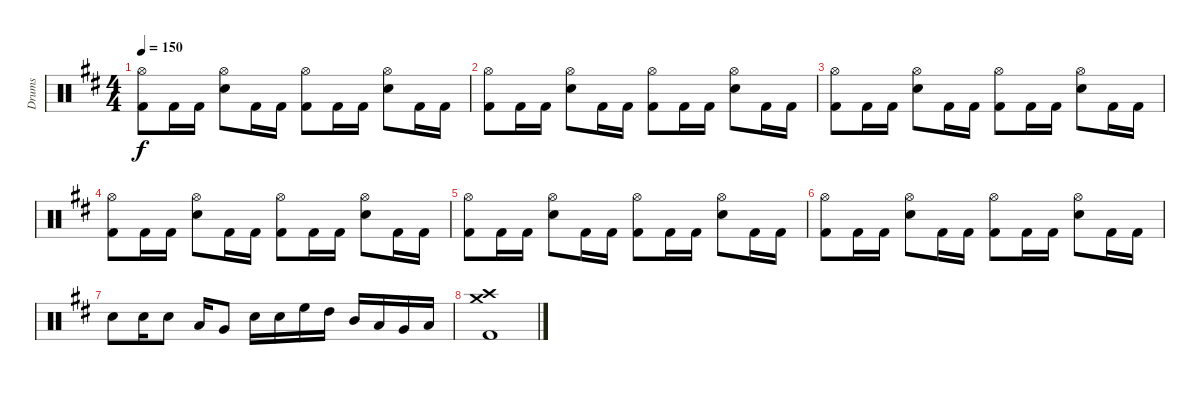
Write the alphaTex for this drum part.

\track ("Drums" "Drums") {instrument percussion}
\staff {score}
\articulation defaults
\ts (4 4)
\tempo 150
\clef neutral
\ks d
("Hi-Hat (open)" "Kick (hit) 2").8{dy f} "Kick (hit) 2".16 "Kick (hit) 2".16 ("Hi-Hat (open)" "Snare (hit) 2").8 "Kick (hit) 2".16 "Kick (hit) 2".16 ("Hi-Hat (open)" "Kick (hit) 2").8 "Kick (hit) 2".16 "Kick (hit) 2".16 ("Hi-Hat (open)" "Snare (hit) 2").8 "Kick (hit) 2".16 "Kick (hit) 2".16 |
("Hi-Hat (open)" "Kick (hit) 2").8 "Kick (hit) 2".16 "Kick (hit) 2".16 ("Hi-Hat (open)" "Snare (hit) 2").8 "Kick (hit) 2".16 "Kick (hit) 2".16 ("Hi-Hat (open)" "Kick (hit) 2").8 "Kick (hit) 2".16 "Kick (hit) 2".16 ("Hi-Hat (open)" "Snare (hit) 2").8 "Kick (hit) 2".16 "Kick (hit) 2".16 |
("Hi-Hat (open)" "Kick (hit) 2").8 "Kick (hit) 2".16 "Kick (hit) 2".16 ("Hi-Hat (open)" "Snare (hit) 2").8 "Kick (hit) 2".16 "Kick (hit) 2".16 ("Hi-Hat (open)" "Kick (hit) 2").8 "Kick (hit) 2".16 "Kick (hit) 2".16 ("Hi-Hat (open)" "Snare (hit) 2").8 "Kick (hit) 2".16 "Kick (hit) 2".16 |
("Hi-Hat (open)" "Kick (hit) 2").8 "Kick (hit) 2".16 "Kick (hit) 2".16 ("Hi-Hat (open)" "Snare (hit) 2").8 "Kick (hit) 2".16 "Kick (hit) 2".16 ("Hi-Hat (open)" "Kick (hit) 2").8 "Kick (hit) 2".16 "Kick (hit) 2".16 ("Hi-Hat (open)" "Snare (hit) 2").8 "Kick (hit) 2".16 "Kick (hit) 2".16 |
("Hi-Hat (open)" "Kick (hit) 2").8 "Kick (hit) 2".16 "Kick (hit) 2".16 ("Hi-Hat (open)" "Snare (hit) 2").8 "Kick (hit) 2".16 "Kick (hit) 2".16 ("Hi-Hat (open)" "Kick (hit) 2").8 "Kick (hit) 2".16 "Kick (hit) 2".16 ("Hi-Hat (open)" "Snare (hit) 2").8 "Kick (hit) 2".16 "Kick (hit) 2".16 |
("Hi-Hat (open)" "Kick (hit) 2").8 "Kick (hit) 2".16 "Kick (hit) 2".16 ("Hi-Hat (open)" "Snare (hit) 2").8 "Kick (hit) 2".16 "Kick (hit) 2".16 ("Hi-Hat (open)" "Kick (hit) 2").8 "Kick (hit) 2".16 "Kick (hit) 2".16 ("Hi-Hat (open)" "Snare (hit) 2").8 "Kick (hit) 2".16 "Kick (hit) 2".16 |
"Snare (hit) 2".8 "Snare (hit) 2".16 "Snare (hit) 2".8 "Low Tom (hit)".16 "Very Low Tom (hit)".8 "Snare (hit) 2".16 "Snare (hit) 2".16 "High Floor Tom (hit)".16 "High Tom (hit)".16 "Mid Tom (hit)".16 "Low Tom (hit)".16 "Very Low Tom (hit)".16 "Low Floor Tom (hit)".16 |
("Crash medium (hit)" "Crash high (hit)" "Kick (hit) 2").1
